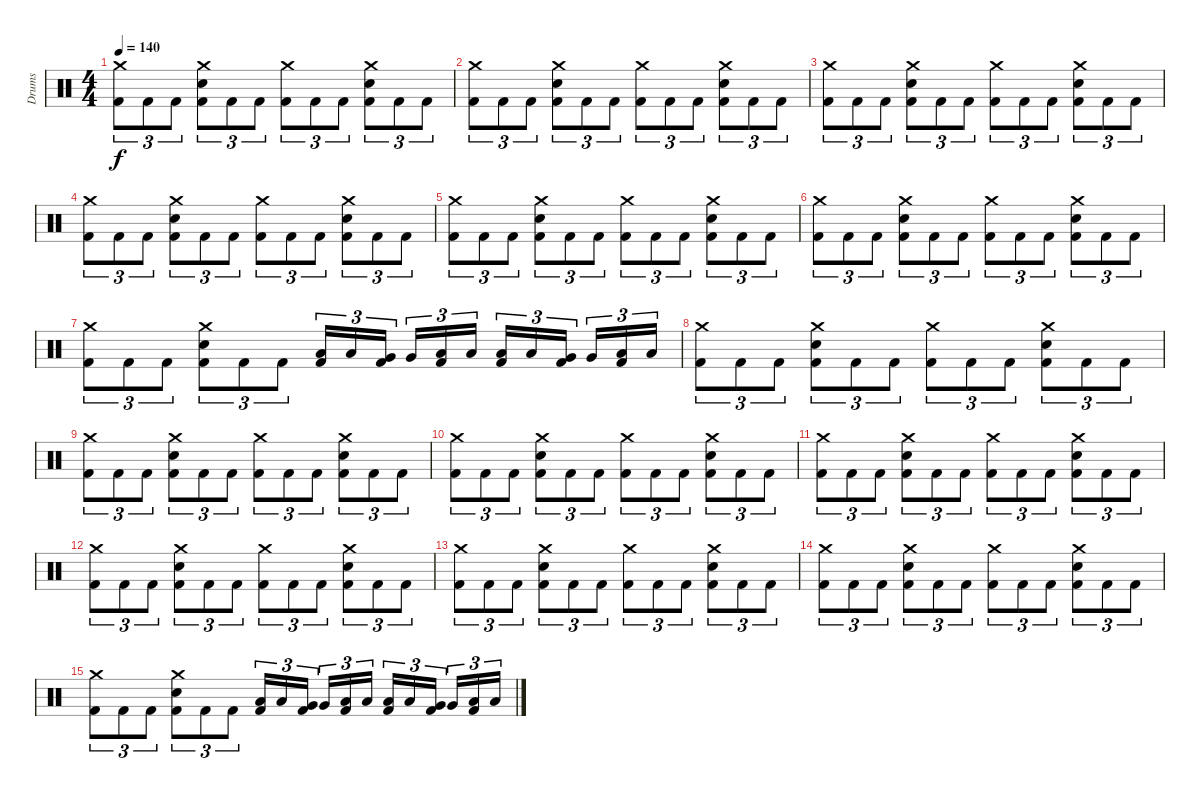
\track ("Drums" "Drums") {instrument percussion}
\staff {score}
\articulation defaults
\ts (4 4)
\tempo 140
\clef neutral
\ks c
("Crash medium (hit)" "Kick (hit) 2").8{tu (3 2) dy f} "Kick (hit) 2".8{tu (3 2)} "Kick (hit) 2".8{tu (3 2)} ("Crash medium (hit)" "Electric Snare (hit)" "Kick (hit) 2").8{tu (3 2)} "Kick (hit) 2".8{tu (3 2)} "Kick (hit) 2".8{tu (3 2)} ("Crash medium (hit)" "Kick (hit) 2").8{tu (3 2)} "Kick (hit) 2".8{tu (3 2)} "Kick (hit) 2".8{tu (3 2)} ("Crash medium (hit)" "Electric Snare (hit)" "Kick (hit) 2").8{tu (3 2)} "Kick (hit) 2".8{tu (3 2)} "Kick (hit) 2".8{tu (3 2)} |
("Crash medium (hit)" "Kick (hit) 2").8{tu (3 2)} "Kick (hit) 2".8{tu (3 2)} "Kick (hit) 2".8{tu (3 2)} ("Crash medium (hit)" "Electric Snare (hit)" "Kick (hit) 2").8{tu (3 2)} "Kick (hit) 2".8{tu (3 2)} "Kick (hit) 2".8{tu (3 2)} ("Crash medium (hit)" "Kick (hit) 2").8{tu (3 2)} "Kick (hit) 2".8{tu (3 2)} "Kick (hit) 2".8{tu (3 2)} ("Crash medium (hit)" "Electric Snare (hit)" "Kick (hit) 2").8{tu (3 2)} "Kick (hit) 2".8{tu (3 2)} "Kick (hit) 2".8{tu (3 2)} |
("Crash medium (hit)" "Kick (hit) 2").8{tu (3 2)} "Kick (hit) 2".8{tu (3 2)} "Kick (hit) 2".8{tu (3 2)} ("Crash medium (hit)" "Electric Snare (hit)" "Kick (hit) 2").8{tu (3 2)} "Kick (hit) 2".8{tu (3 2)} "Kick (hit) 2".8{tu (3 2)} ("Crash medium (hit)" "Kick (hit) 2").8{tu (3 2)} "Kick (hit) 2".8{tu (3 2)} "Kick (hit) 2".8{tu (3 2)} ("Crash medium (hit)" "Electric Snare (hit)" "Kick (hit) 2").8{tu (3 2)} "Kick (hit) 2".8{tu (3 2)} "Kick (hit) 2".8{tu (3 2)} |
("Crash medium (hit)" "Kick (hit) 2").8{tu (3 2)} "Kick (hit) 2".8{tu (3 2)} "Kick (hit) 2".8{tu (3 2)} ("Crash medium (hit)" "Electric Snare (hit)" "Kick (hit) 2").8{tu (3 2)} "Kick (hit) 2".8{tu (3 2)} "Kick (hit) 2".8{tu (3 2)} ("Crash medium (hit)" "Kick (hit) 2").8{tu (3 2)} "Kick (hit) 2".8{tu (3 2)} "Kick (hit) 2".8{tu (3 2)} ("Crash medium (hit)" "Electric Snare (hit)" "Kick (hit) 2").8{tu (3 2)} "Kick (hit) 2".8{tu (3 2)} "Kick (hit) 2".8{tu (3 2)} |
("Crash medium (hit)" "Kick (hit) 2").8{tu (3 2)} "Kick (hit) 2".8{tu (3 2)} "Kick (hit) 2".8{tu (3 2)} ("Crash medium (hit)" "Electric Snare (hit)" "Kick (hit) 2").8{tu (3 2)} "Kick (hit) 2".8{tu (3 2)} "Kick (hit) 2".8{tu (3 2)} ("Crash medium (hit)" "Kick (hit) 2").8{tu (3 2)} "Kick (hit) 2".8{tu (3 2)} "Kick (hit) 2".8{tu (3 2)} ("Crash medium (hit)" "Electric Snare (hit)" "Kick (hit) 2").8{tu (3 2)} "Kick (hit) 2".8{tu (3 2)} "Kick (hit) 2".8{tu (3 2)} |
("Crash medium (hit)" "Kick (hit) 2").8{tu (3 2)} "Kick (hit) 2".8{tu (3 2)} "Kick (hit) 2".8{tu (3 2)} ("Crash medium (hit)" "Electric Snare (hit)" "Kick (hit) 2").8{tu (3 2)} "Kick (hit) 2".8{tu (3 2)} "Kick (hit) 2".8{tu (3 2)} ("Crash medium (hit)" "Kick (hit) 2").8{tu (3 2)} "Kick (hit) 2".8{tu (3 2)} "Kick (hit) 2".8{tu (3 2)} ("Crash medium (hit)" "Electric Snare (hit)" "Kick (hit) 2").8{tu (3 2)} "Kick (hit) 2".8{tu (3 2)} "Kick (hit) 2".8{tu (3 2)} |
("Crash medium (hit)" "Kick (hit) 2").8{tu (3 2)} "Kick (hit) 2".8{tu (3 2)} "Kick (hit) 2".8{tu (3 2)} ("Crash medium (hit)" "Electric Snare (hit)" "Kick (hit) 2").8{tu (3 2)} "Kick (hit) 2".8{tu (3 2)} "Kick (hit) 2".8{tu (3 2)} ("Low Tom (hit)" "Kick (hit) 2").16{tu (3 2)} "Low Tom (hit)".16{tu (3 2)} ("Very Low Tom (hit)" "Kick (hit) 2").16{tu (3 2)} "Very Low Tom (hit)".16{tu (3 2)} ("Low Floor Tom (hit)" "Kick (hit) 2").16{tu (3 2)} "Low Floor Tom (hit)".16{tu (3 2)} ("Low Tom (hit)" "Kick (hit) 2").16{tu (3 2)} "Low Tom (hit)".16{tu (3 2)} ("Very Low Tom (hit)" "Kick (hit) 2").16{tu (3 2)} "Very Low Tom (hit)".16{tu (3 2)} ("Low Floor Tom (hit)" "Kick (hit) 2").16{tu (3 2)} "Low Floor Tom (hit)".16{tu (3 2)} |
("Crash medium (hit)" "Kick (hit) 2").8{tu (3 2)} "Kick (hit) 2".8{tu (3 2)} "Kick (hit) 2".8{tu (3 2)} ("Crash medium (hit)" "Electric Snare (hit)" "Kick (hit) 2").8{tu (3 2)} "Kick (hit) 2".8{tu (3 2)} "Kick (hit) 2".8{tu (3 2)} ("Crash medium (hit)" "Kick (hit) 2").8{tu (3 2)} "Kick (hit) 2".8{tu (3 2)} "Kick (hit) 2".8{tu (3 2)} ("Crash medium (hit)" "Electric Snare (hit)" "Kick (hit) 2").8{tu (3 2)} "Kick (hit) 2".8{tu (3 2)} "Kick (hit) 2".8{tu (3 2)} |
("Crash medium (hit)" "Kick (hit) 2").8{tu (3 2)} "Kick (hit) 2".8{tu (3 2)} "Kick (hit) 2".8{tu (3 2)} ("Crash medium (hit)" "Electric Snare (hit)" "Kick (hit) 2").8{tu (3 2)} "Kick (hit) 2".8{tu (3 2)} "Kick (hit) 2".8{tu (3 2)} ("Crash medium (hit)" "Kick (hit) 2").8{tu (3 2)} "Kick (hit) 2".8{tu (3 2)} "Kick (hit) 2".8{tu (3 2)} ("Crash medium (hit)" "Electric Snare (hit)" "Kick (hit) 2").8{tu (3 2)} "Kick (hit) 2".8{tu (3 2)} "Kick (hit) 2".8{tu (3 2)} |
("Crash medium (hit)" "Kick (hit) 2").8{tu (3 2)} "Kick (hit) 2".8{tu (3 2)} "Kick (hit) 2".8{tu (3 2)} ("Crash medium (hit)" "Electric Snare (hit)" "Kick (hit) 2").8{tu (3 2)} "Kick (hit) 2".8{tu (3 2)} "Kick (hit) 2".8{tu (3 2)} ("Crash medium (hit)" "Kick (hit) 2").8{tu (3 2)} "Kick (hit) 2".8{tu (3 2)} "Kick (hit) 2".8{tu (3 2)} ("Crash medium (hit)" "Electric Snare (hit)" "Kick (hit) 2").8{tu (3 2)} "Kick (hit) 2".8{tu (3 2)} "Kick (hit) 2".8{tu (3 2)} |
("Crash medium (hit)" "Kick (hit) 2").8{tu (3 2)} "Kick (hit) 2".8{tu (3 2)} "Kick (hit) 2".8{tu (3 2)} ("Crash medium (hit)" "Electric Snare (hit)" "Kick (hit) 2").8{tu (3 2)} "Kick (hit) 2".8{tu (3 2)} "Kick (hit) 2".8{tu (3 2)} ("Crash medium (hit)" "Kick (hit) 2").8{tu (3 2)} "Kick (hit) 2".8{tu (3 2)} "Kick (hit) 2".8{tu (3 2)} ("Crash medium (hit)" "Electric Snare (hit)" "Kick (hit) 2").8{tu (3 2)} "Kick (hit) 2".8{tu (3 2)} "Kick (hit) 2".8{tu (3 2)} |
("Crash medium (hit)" "Kick (hit) 2").8{tu (3 2)} "Kick (hit) 2".8{tu (3 2)} "Kick (hit) 2".8{tu (3 2)} ("Crash medium (hit)" "Electric Snare (hit)" "Kick (hit) 2").8{tu (3 2)} "Kick (hit) 2".8{tu (3 2)} "Kick (hit) 2".8{tu (3 2)} ("Crash medium (hit)" "Kick (hit) 2").8{tu (3 2)} "Kick (hit) 2".8{tu (3 2)} "Kick (hit) 2".8{tu (3 2)} ("Crash medium (hit)" "Electric Snare (hit)" "Kick (hit) 2").8{tu (3 2)} "Kick (hit) 2".8{tu (3 2)} "Kick (hit) 2".8{tu (3 2)} |
("Crash medium (hit)" "Kick (hit) 2").8{tu (3 2)} "Kick (hit) 2".8{tu (3 2)} "Kick (hit) 2".8{tu (3 2)} ("Crash medium (hit)" "Electric Snare (hit)" "Kick (hit) 2").8{tu (3 2)} "Kick (hit) 2".8{tu (3 2)} "Kick (hit) 2".8{tu (3 2)} ("Crash medium (hit)" "Kick (hit) 2").8{tu (3 2)} "Kick (hit) 2".8{tu (3 2)} "Kick (hit) 2".8{tu (3 2)} ("Crash medium (hit)" "Electric Snare (hit)" "Kick (hit) 2").8{tu (3 2)} "Kick (hit) 2".8{tu (3 2)} "Kick (hit) 2".8{tu (3 2)} |
("Crash medium (hit)" "Kick (hit) 2").8{tu (3 2)} "Kick (hit) 2".8{tu (3 2)} "Kick (hit) 2".8{tu (3 2)} ("Crash medium (hit)" "Electric Snare (hit)" "Kick (hit) 2").8{tu (3 2)} "Kick (hit) 2".8{tu (3 2)} "Kick (hit) 2".8{tu (3 2)} ("Crash medium (hit)" "Kick (hit) 2").8{tu (3 2)} "Kick (hit) 2".8{tu (3 2)} "Kick (hit) 2".8{tu (3 2)} ("Crash medium (hit)" "Electric Snare (hit)" "Kick (hit) 2").8{tu (3 2)} "Kick (hit) 2".8{tu (3 2)} "Kick (hit) 2".8{tu (3 2)} |
("Crash medium (hit)" "Kick (hit) 2").8{tu (3 2)} "Kick (hit) 2".8{tu (3 2)} "Kick (hit) 2".8{tu (3 2)} ("Crash medium (hit)" "Electric Snare (hit)" "Kick (hit) 2").8{tu (3 2)} "Kick (hit) 2".8{tu (3 2)} "Kick (hit) 2".8{tu (3 2)} ("Low Tom (hit)" "Kick (hit) 2").16{tu (3 2)} "Low Tom (hit)".16{tu (3 2)} ("Very Low Tom (hit)" "Kick (hit) 2").16{tu (3 2)} "Very Low Tom (hit)".16{tu (3 2)} ("Low Floor Tom (hit)" "Kick (hit) 2").16{tu (3 2)} "Low Floor Tom (hit)".16{tu (3 2)} ("Low Tom (hit)" "Kick (hit) 2").16{tu (3 2)} "Low Tom (hit)".16{tu (3 2)} ("Very Low Tom (hit)" "Kick (hit) 2").16{tu (3 2)} "Very Low Tom (hit)".16{tu (3 2)} ("Low Floor Tom (hit)" "Kick (hit) 2").16{tu (3 2)} "Low Floor Tom (hit)".16{tu (3 2)}
